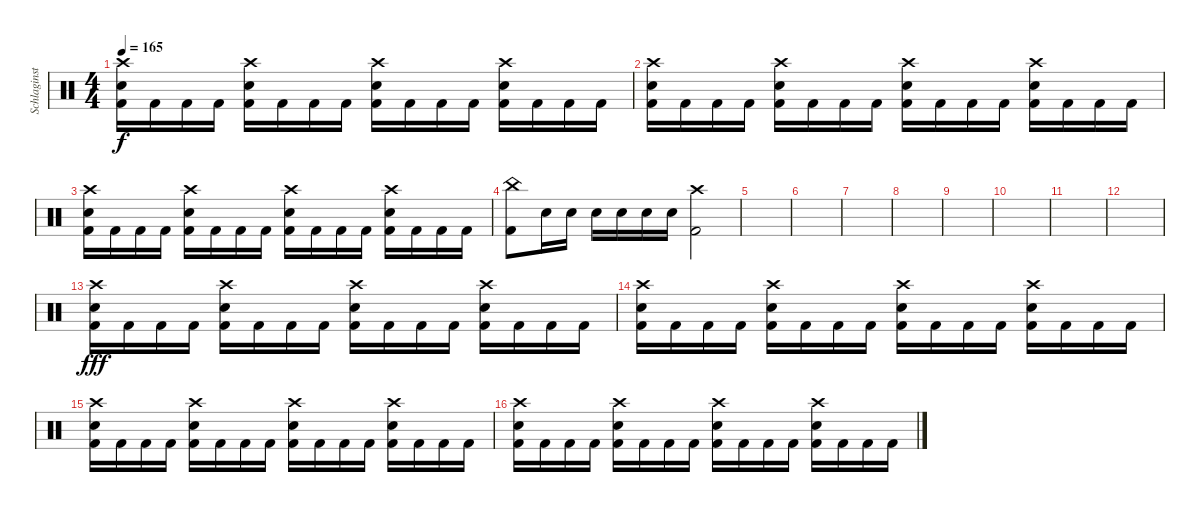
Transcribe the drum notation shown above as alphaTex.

\track ("Schlaginstrumente - Auswahl" "Schlaginst") {instrument percussion}
\staff {score}
\articulation defaults
\ts (4 4)
\tempo 165
\clef neutral
\ks c
("Crash high (hit)" "Snare (hit) 2" "Kick (hit) 2").16{dy f} "Kick (hit) 2".16 "Kick (hit) 2".16 "Kick (hit) 2".16 ("Crash high (hit)" "Snare (hit) 2" "Kick (hit) 2").16 "Kick (hit) 2".16 "Kick (hit) 2".16 "Kick (hit) 2".16 ("Crash high (hit)" "Snare (hit) 2" "Kick (hit) 2").16 "Kick (hit) 2".16 "Kick (hit) 2".16 "Kick (hit) 2".16 ("Crash high (hit)" "Snare (hit) 2" "Kick (hit) 2").16 "Kick (hit) 2".16 "Kick (hit) 2".16 "Kick (hit) 2".16 |
("Crash high (hit)" "Snare (hit) 2" "Kick (hit) 2").16 "Kick (hit) 2".16 "Kick (hit) 2".16 "Kick (hit) 2".16 ("Crash high (hit)" "Snare (hit) 2" "Kick (hit) 2").16 "Kick (hit) 2".16 "Kick (hit) 2".16 "Kick (hit) 2".16 ("Crash high (hit)" "Snare (hit) 2" "Kick (hit) 2").16 "Kick (hit) 2".16 "Kick (hit) 2".16 "Kick (hit) 2".16 ("Crash high (hit)" "Snare (hit) 2" "Kick (hit) 2").16 "Kick (hit) 2".16 "Kick (hit) 2".16 "Kick (hit) 2".16 |
("Crash high (hit)" "Snare (hit) 2" "Kick (hit) 2").16 "Kick (hit) 2".16 "Kick (hit) 2".16 "Kick (hit) 2".16 ("Crash high (hit)" "Snare (hit) 2" "Kick (hit) 2").16 "Kick (hit) 2".16 "Kick (hit) 2".16 "Kick (hit) 2".16 ("Crash high (hit)" "Snare (hit) 2" "Kick (hit) 2").16 "Kick (hit) 2".16 "Kick (hit) 2".16 "Kick (hit) 2".16 ("Crash high (hit)" "Snare (hit) 2" "Kick (hit) 2").16 "Kick (hit) 2".16 "Kick (hit) 2".16 "Kick (hit) 2".16 |
("China (hit)" "Kick (hit) 2").8 "Snare (hit) 2".16 "Snare (hit) 2".16 "Snare (hit) 2".16 "Snare (hit) 2".16 "Snare (hit) 2".16 "Snare (hit) 2".16 ("Crash high (hit)" "Kick (hit) 2").2 |
|
|
|
|
|
|
|
|
("Crash high (hit)" "Snare (hit) 2" "Kick (hit) 2").16{dy fff} "Kick (hit) 2".16 "Kick (hit) 2".16 "Kick (hit) 2".16 ("Crash high (hit)" "Snare (hit) 2" "Kick (hit) 2").16 "Kick (hit) 2".16 "Kick (hit) 2".16 "Kick (hit) 2".16 ("Crash high (hit)" "Snare (hit) 2" "Kick (hit) 2").16 "Kick (hit) 2".16 "Kick (hit) 2".16 "Kick (hit) 2".16 ("Crash high (hit)" "Snare (hit) 2" "Kick (hit) 2").16 "Kick (hit) 2".16 "Kick (hit) 2".16 "Kick (hit) 2".16 |
("Crash high (hit)" "Snare (hit) 2" "Kick (hit) 2").16 "Kick (hit) 2".16 "Kick (hit) 2".16 "Kick (hit) 2".16 ("Crash high (hit)" "Snare (hit) 2" "Kick (hit) 2").16 "Kick (hit) 2".16 "Kick (hit) 2".16 "Kick (hit) 2".16 ("Crash high (hit)" "Snare (hit) 2" "Kick (hit) 2").16 "Kick (hit) 2".16 "Kick (hit) 2".16 "Kick (hit) 2".16 ("Crash high (hit)" "Snare (hit) 2" "Kick (hit) 2").16 "Kick (hit) 2".16 "Kick (hit) 2".16 "Kick (hit) 2".16 |
("Crash high (hit)" "Snare (hit) 2" "Kick (hit) 2").16 "Kick (hit) 2".16 "Kick (hit) 2".16 "Kick (hit) 2".16 ("Crash high (hit)" "Snare (hit) 2" "Kick (hit) 2").16 "Kick (hit) 2".16 "Kick (hit) 2".16 "Kick (hit) 2".16 ("Crash high (hit)" "Snare (hit) 2" "Kick (hit) 2").16 "Kick (hit) 2".16 "Kick (hit) 2".16 "Kick (hit) 2".16 ("Crash high (hit)" "Snare (hit) 2" "Kick (hit) 2").16 "Kick (hit) 2".16 "Kick (hit) 2".16 "Kick (hit) 2".16 |
("Crash high (hit)" "Snare (hit) 2" "Kick (hit) 2").16 "Kick (hit) 2".16 "Kick (hit) 2".16 "Kick (hit) 2".16 ("Crash high (hit)" "Snare (hit) 2" "Kick (hit) 2").16 "Kick (hit) 2".16 "Kick (hit) 2".16 "Kick (hit) 2".16 ("Crash high (hit)" "Snare (hit) 2" "Kick (hit) 2").16 "Kick (hit) 2".16 "Kick (hit) 2".16 "Kick (hit) 2".16 ("Crash high (hit)" "Snare (hit) 2" "Kick (hit) 2").16 "Kick (hit) 2".16 "Kick (hit) 2".16 "Kick (hit) 2".16
